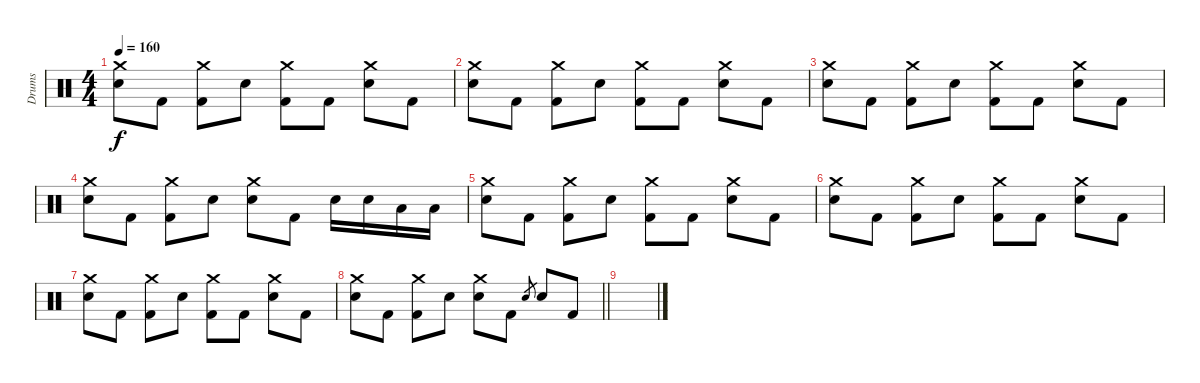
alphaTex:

\track ("Drums" "Drums") {instrument percussion}
\staff {score}
\articulation defaults
\ts (4 4)
\tempo 160
\clef neutral
\ks c
("Crash medium (hit)" "Electric Snare (hit)").8{dy f volume 4} "Kick (hit) 2".8 ("Crash medium (hit)" "Kick (hit) 2").8 "Electric Snare (hit)".8 ("Crash medium (hit)" "Kick (hit) 2").8 "Kick (hit) 2".8 ("Crash medium (hit)" "Electric Snare (hit)").8 "Kick (hit) 2".8 |
("Crash medium (hit)" "Electric Snare (hit)").8 "Kick (hit) 2".8 ("Crash medium (hit)" "Kick (hit) 2").8 "Electric Snare (hit)".8 ("Crash medium (hit)" "Kick (hit) 2").8 "Kick (hit) 2".8 ("Crash medium (hit)" "Electric Snare (hit)").8 "Kick (hit) 2".8 |
("Crash medium (hit)" "Electric Snare (hit)").8 "Kick (hit) 2".8 ("Crash medium (hit)" "Kick (hit) 2").8 "Electric Snare (hit)".8 ("Crash medium (hit)" "Kick (hit) 2").8 "Kick (hit) 2".8 ("Crash medium (hit)" "Electric Snare (hit)").8 "Kick (hit) 2".8 |
("Crash medium (hit)" "Electric Snare (hit)").8 "Kick (hit) 2".8 ("Crash medium (hit)" "Kick (hit) 2").8 "Electric Snare (hit)".8 ("Crash medium (hit)" "Electric Snare (hit)").8 "Kick (hit) 2".8 "Electric Snare (hit)".16 "Electric Snare (hit)".16 "Low Tom (hit)".16 "Low Tom (hit)".16 |
("Crash medium (hit)" "Electric Snare (hit)").8{volume 0} "Kick (hit) 2".8 ("Crash medium (hit)" "Kick (hit) 2").8 "Electric Snare (hit)".8 ("Crash medium (hit)" "Kick (hit) 2").8 "Kick (hit) 2".8 ("Crash medium (hit)" "Electric Snare (hit)").8 "Kick (hit) 2".8 |
("Crash medium (hit)" "Electric Snare (hit)").8 "Kick (hit) 2".8 ("Crash medium (hit)" "Kick (hit) 2").8 "Electric Snare (hit)".8 ("Crash medium (hit)" "Kick (hit) 2").8 "Kick (hit) 2".8 ("Crash medium (hit)" "Electric Snare (hit)").8 "Kick (hit) 2".8 |
("Crash medium (hit)" "Electric Snare (hit)").8 "Kick (hit) 2".8 ("Crash medium (hit)" "Kick (hit) 2").8 "Electric Snare (hit)".8 ("Crash medium (hit)" "Kick (hit) 2").8 "Kick (hit) 2".8 ("Crash medium (hit)" "Electric Snare (hit)").8 "Kick (hit) 2".8 |
\barLineRight lightlight
("Crash medium (hit)" "Electric Snare (hit)").8 "Kick (hit) 2".8 ("Crash medium (hit)" "Kick (hit) 2").8 "Electric Snare (hit)".8 ("Crash medium (hit)" "Electric Snare (hit)").8 "Kick (hit) 2".8 "Electric Snare (hit)".8{gr} "Electric Snare (hit)".8 "Kick (hit) 2".8 |
\section ("" "")
